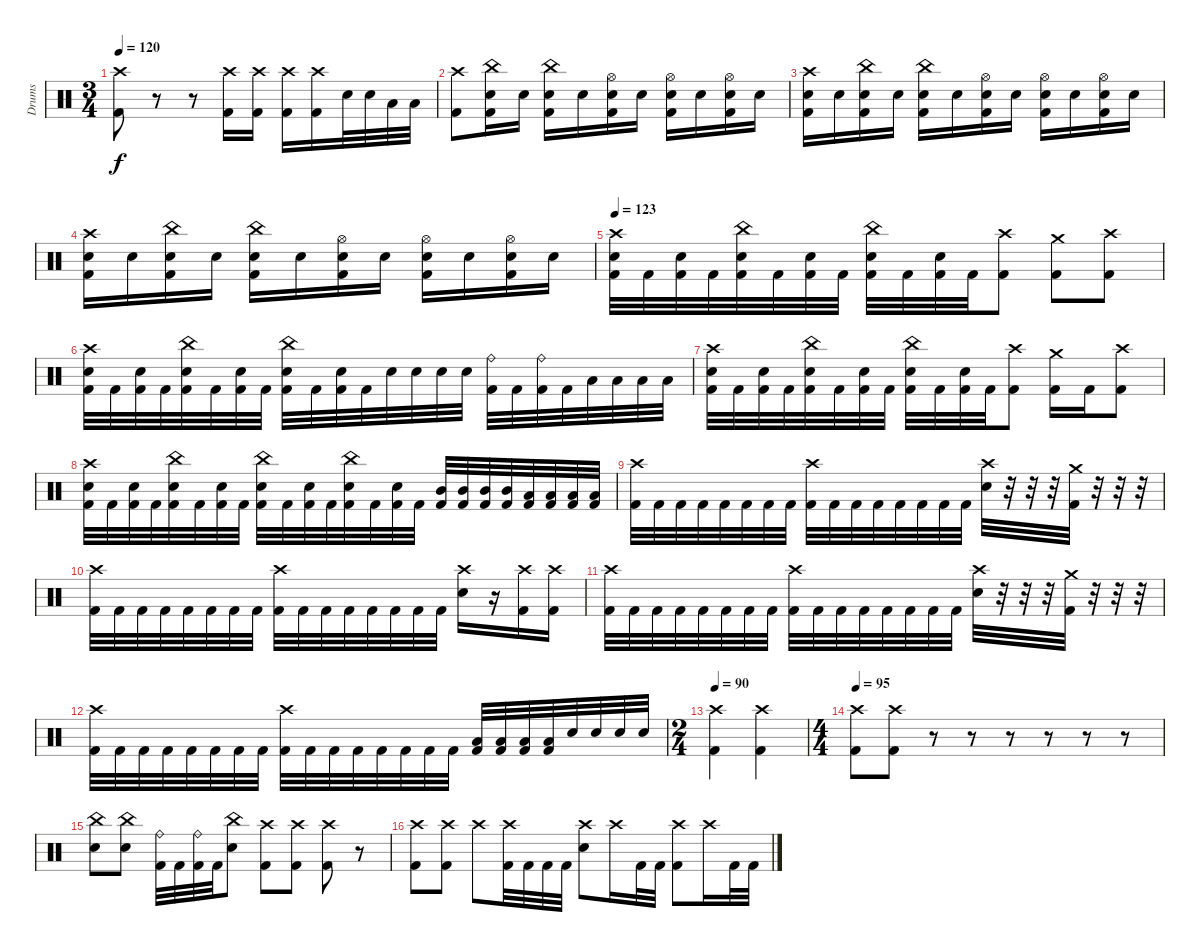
\track ("Drums" "Drums") {instrument percussion}
\staff {score}
\articulation defaults
\ts (3 4)
\tempo 120
\clef neutral
\ks c
("Crash high (hit)" "Kick (hit) 2").8{dy f} r.8 r.8 ("Crash high (hit)" "Kick (hit) 2").16 ("Crash high (hit)" "Kick (hit) 2").16 ("Crash high (hit)" "Kick (hit) 2").16 ("Crash high (hit)" "Kick (hit) 2").16 "Electric Snare (hit)".32 "Electric Snare (hit)".32 "Low Tom (hit)".32 "Low Tom (hit)".32 |
("Crash high (hit)" "Kick (hit) 2").8 ("China (hit)" "Electric Snare (hit)" "Kick (hit) 2").16 "Electric Snare (hit)".16 ("China (hit)" "Electric Snare (hit)" "Kick (hit) 2").16 "Electric Snare (hit)".16 ("Hi-Hat (open)" "Electric Snare (hit)" "Kick (hit) 2").16 "Electric Snare (hit)".16 ("Hi-Hat (open)" "Electric Snare (hit)" "Kick (hit) 2").16 "Electric Snare (hit)".16 ("Hi-Hat (open)" "Electric Snare (hit)" "Kick (hit) 2").16 "Electric Snare (hit)".16 |
("Crash high (hit)" "Electric Snare (hit)" "Kick (hit) 2").16 "Electric Snare (hit)".16 ("China (hit)" "Electric Snare (hit)" "Kick (hit) 2").16 "Electric Snare (hit)".16 ("China (hit)" "Electric Snare (hit)" "Kick (hit) 2").16 "Electric Snare (hit)".16 ("Hi-Hat (open)" "Electric Snare (hit)" "Kick (hit) 2").16 "Electric Snare (hit)".16 ("Hi-Hat (open)" "Electric Snare (hit)" "Kick (hit) 2").16 "Electric Snare (hit)".16 ("Hi-Hat (open)" "Electric Snare (hit)" "Kick (hit) 2").16 "Electric Snare (hit)".16 |
("Crash high (hit)" "Electric Snare (hit)" "Kick (hit) 2").16 "Electric Snare (hit)".16 ("China (hit)" "Electric Snare (hit)" "Kick (hit) 2").16 "Electric Snare (hit)".16 ("China (hit)" "Electric Snare (hit)" "Kick (hit) 2").16 "Electric Snare (hit)".16 ("Hi-Hat (open)" "Electric Snare (hit)" "Kick (hit) 2").16 "Electric Snare (hit)".16 ("Hi-Hat (open)" "Electric Snare (hit)" "Kick (hit) 2").16 "Electric Snare (hit)".16 ("Hi-Hat (open)" "Electric Snare (hit)" "Kick (hit) 2").16 "Electric Snare (hit)".16 |
\tempo 123
("Crash high (hit)" "Electric Snare (hit)" "Kick (hit) 2").32 "Kick (hit) 2".32 ("Electric Snare (hit)" "Kick (hit) 2").32 "Kick (hit) 2".32 ("China (hit)" "Electric Snare (hit)" "Kick (hit) 2").32 "Kick (hit) 2".32 ("Electric Snare (hit)" "Kick (hit) 2").32 "Kick (hit) 2".32 ("China (hit)" "Electric Snare (hit)" "Kick (hit) 2").32 "Kick (hit) 2".32 ("Electric Snare (hit)" "Kick (hit) 2").32 "Kick (hit) 2".32 ("Crash high (hit)" "Kick (hit) 2").8 ("Crash medium (hit)" "Kick (hit) 2").8 ("Crash high (hit)" "Kick (hit) 2").8 |
("Crash high (hit)" "Electric Snare (hit)" "Kick (hit) 2").32 "Kick (hit) 2".32 ("Electric Snare (hit)" "Kick (hit) 2").32 "Kick (hit) 2".32 ("China (hit)" "Electric Snare (hit)" "Kick (hit) 2").32 "Kick (hit) 2".32 ("Electric Snare (hit)" "Kick (hit) 2").32 "Kick (hit) 2".32 ("China (hit)" "Electric Snare (hit)" "Kick (hit) 2").32 "Kick (hit) 2".32 ("Electric Snare (hit)" "Kick (hit) 2").32 "Kick (hit) 2".32 "Electric Snare (hit)".32 "Electric Snare (hit)".32 "Electric Snare (hit)".32 "Electric Snare (hit)".32 ("Ride (bell)" "Kick (hit) 2").32 "Kick (hit) 2".32 ("Ride (bell)" "Kick (hit) 2").32 "Kick (hit) 2".32 "Low Tom (hit)".32 "Low Tom (hit)".32 "Low Tom (hit)".32 "Low Tom (hit)".32 |
("Crash high (hit)" "Electric Snare (hit)" "Kick (hit) 2").32 "Kick (hit) 2".32 ("Electric Snare (hit)" "Kick (hit) 2").32 "Kick (hit) 2".32 ("China (hit)" "Electric Snare (hit)" "Kick (hit) 2").32 "Kick (hit) 2".32 ("Electric Snare (hit)" "Kick (hit) 2").32 "Kick (hit) 2".32 ("China (hit)" "Electric Snare (hit)" "Kick (hit) 2").32 "Kick (hit) 2".32 ("Electric Snare (hit)" "Kick (hit) 2").32 "Kick (hit) 2".32 ("Crash high (hit)" "Kick (hit) 2").8 ("Crash medium (hit)" "Kick (hit) 2").16 "Kick (hit) 2".16 ("Crash high (hit)" "Kick (hit) 2").8 |
("Crash high (hit)" "Electric Snare (hit)" "Kick (hit) 2").32 "Kick (hit) 2".32 ("Electric Snare (hit)" "Kick (hit) 2").32 "Kick (hit) 2".32 ("China (hit)" "Electric Snare (hit)" "Kick (hit) 2").32 "Kick (hit) 2".32 ("Electric Snare (hit)" "Kick (hit) 2").32 "Kick (hit) 2".32 ("China (hit)" "Electric Snare (hit)" "Kick (hit) 2").32 "Kick (hit) 2".32 ("Electric Snare (hit)" "Kick (hit) 2").32 "Kick (hit) 2".32 ("China (hit)" "Electric Snare (hit)" "Kick (hit) 2").32 "Kick (hit) 2".32 ("Electric Snare (hit)" "Kick (hit) 2").32 "Kick (hit) 2".32 ("Mid Tom (hit)" "Kick (hit) 2").32 ("Mid Tom (hit)" "Kick (hit) 2").32 ("Mid Tom (hit)" "Kick (hit) 2").32 ("Mid Tom (hit)" "Kick (hit) 2").32 ("Low Tom (hit)" "Kick (hit) 2").32 ("Low Tom (hit)" "Kick (hit) 2").32 ("Low Tom (hit)" "Kick (hit) 2").32 ("Low Tom (hit)" "Kick (hit) 2").32 |
("Crash high (hit)" "Kick (hit) 2").32 "Kick (hit) 2".32 "Kick (hit) 2".32 "Kick (hit) 2".32 "Kick (hit) 2".32 "Kick (hit) 2".32 "Kick (hit) 2".32 "Kick (hit) 2".32 ("Crash high (hit)" "Kick (hit) 2").32 "Kick (hit) 2".32 "Kick (hit) 2".32 "Kick (hit) 2".32 "Kick (hit) 2".32 "Kick (hit) 2".32 "Kick (hit) 2".32 "Kick (hit) 2".32 ("Crash high (hit)" "Electric Snare (hit)").32 r.32 r.32 r.32 ("Crash medium (hit)" "Kick (hit) 2").32 r.32 r.32 r.32 |
("Crash high (hit)" "Kick (hit) 2").32 "Kick (hit) 2".32 "Kick (hit) 2".32 "Kick (hit) 2".32 "Kick (hit) 2".32 "Kick (hit) 2".32 "Kick (hit) 2".32 "Kick (hit) 2".32 ("Crash high (hit)" "Kick (hit) 2").32 "Kick (hit) 2".32 "Kick (hit) 2".32 "Kick (hit) 2".32 "Kick (hit) 2".32 "Kick (hit) 2".32 "Kick (hit) 2".32 "Kick (hit) 2".32 ("Crash high (hit)" "Electric Snare (hit)").16 r.16 ("Crash high (hit)" "Kick (hit) 2").16 ("Crash high (hit)" "Kick (hit) 2").16 |
("Crash high (hit)" "Kick (hit) 2").32 "Kick (hit) 2".32 "Kick (hit) 2".32 "Kick (hit) 2".32 "Kick (hit) 2".32 "Kick (hit) 2".32 "Kick (hit) 2".32 "Kick (hit) 2".32 ("Crash high (hit)" "Kick (hit) 2").32 "Kick (hit) 2".32 "Kick (hit) 2".32 "Kick (hit) 2".32 "Kick (hit) 2".32 "Kick (hit) 2".32 "Kick (hit) 2".32 "Kick (hit) 2".32 ("Crash high (hit)" "Electric Snare (hit)").32 r.32 r.32 r.32 ("Crash medium (hit)" "Kick (hit) 2").32 r.32 r.32 r.32 |
("Crash high (hit)" "Kick (hit) 2").32 "Kick (hit) 2".32 "Kick (hit) 2".32 "Kick (hit) 2".32 "Kick (hit) 2".32 "Kick (hit) 2".32 "Kick (hit) 2".32 "Kick (hit) 2".32 ("Crash high (hit)" "Kick (hit) 2").32 "Kick (hit) 2".32 "Kick (hit) 2".32 "Kick (hit) 2".32 "Kick (hit) 2".32 "Kick (hit) 2".32 "Kick (hit) 2".32 "Kick (hit) 2".32 ("Low Tom (hit)" "Kick (hit) 2").32 ("Low Tom (hit)" "Kick (hit) 2").32 ("Low Tom (hit)" "Kick (hit) 2").32 ("Low Tom (hit)" "Kick (hit) 2").32 "Electric Snare (hit)".32 "Electric Snare (hit)".32 "Electric Snare (hit)".32 "Electric Snare (hit)".32 |
\ts (2 4)
\tempo 90
("Crash high (hit)" "Kick (hit) 2").4 ("Crash high (hit)" "Kick (hit) 2").4 |
\ts (4 4)
\tempo 95
("Crash high (hit)" "Kick (hit) 2").8 ("Crash high (hit)" "Kick (hit) 2").8 r.8 r.8 r.8 r.8 r.8 r.8 |
("China (hit)" "Electric Snare (hit)").8 ("China (hit)" "Electric Snare (hit)").8 ("Ride (bell)" "Kick (hit) 2").32 "Kick (hit) 2".32 ("Ride (bell)" "Kick (hit) 2").32 "Kick (hit) 2".32 ("China (hit)" "Electric Snare (hit)").8 ("Crash high (hit)" "Kick (hit) 2").8 ("Crash high (hit)" "Kick (hit) 2").8 ("Crash high (hit)" "Kick (hit) 2").8 r.8 |
("Crash high (hit)" "Kick (hit) 2").8 ("Crash high (hit)" "Kick (hit) 2").8 "Crash high (hit)".8 ("Crash high (hit)" "Kick (hit) 2").32 "Kick (hit) 2".32 "Kick (hit) 2".32 "Kick (hit) 2".32 ("Crash high (hit)" "Electric Snare (hit)").8 "Crash high (hit)".16 "Kick (hit) 2".32 "Kick (hit) 2".32 ("Crash high (hit)" "Kick (hit) 2").8 "Crash high (hit)".16 "Kick (hit) 2".32 "Kick (hit) 2".32
